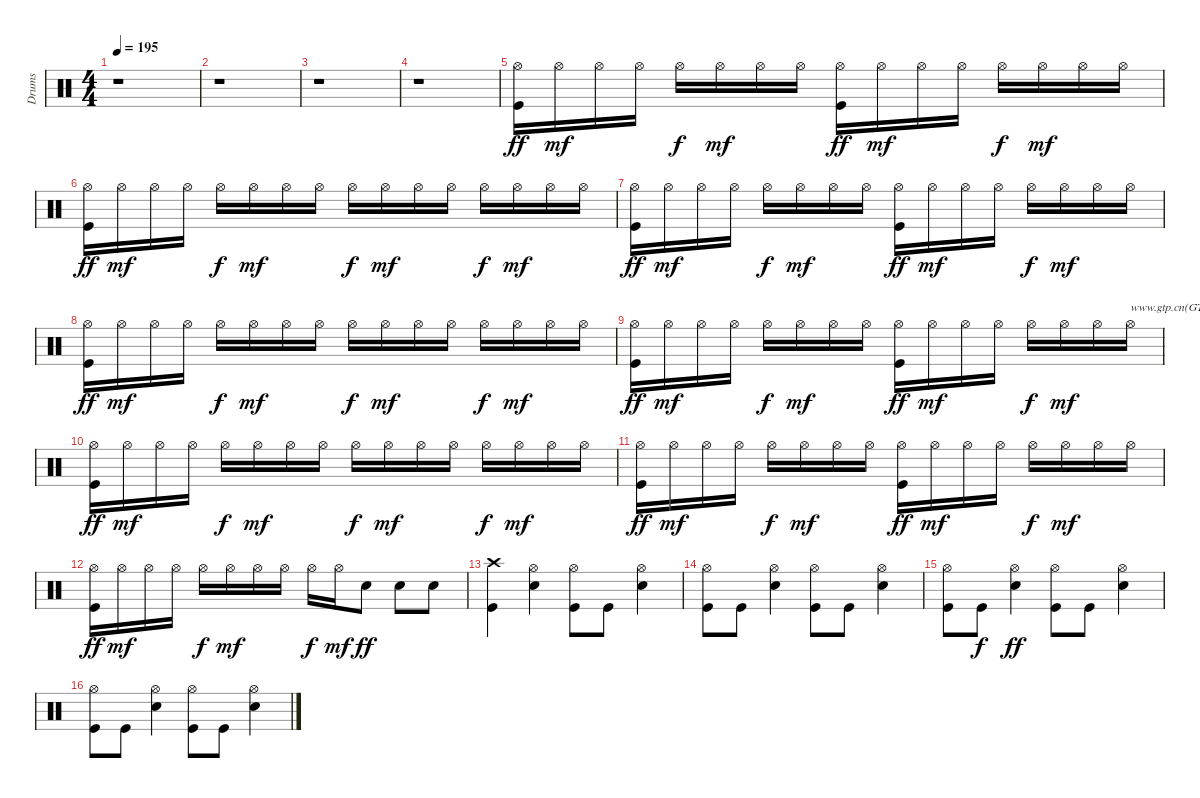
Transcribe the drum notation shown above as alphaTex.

\track ("Drums" "Drums") {instrument percussion}
\staff {score}
\articulation defaults
\ts (4 4)
\tempo 195
\clef neutral
\ks c
r.1{dy ff} |
r.1 |
r.1 |
r.1 |
("Hi-Hat (open)" "Kick (hit)").16 "Hi-Hat (open)".16{dy mf} "Hi-Hat (open)".16 "Hi-Hat (open)".16 "Hi-Hat (open)".16{dy f} "Hi-Hat (open)".16{dy mf} "Hi-Hat (open)".16 "Hi-Hat (open)".16 ("Hi-Hat (open)" "Kick (hit)").16{dy ff} "Hi-Hat (open)".16{dy mf} "Hi-Hat (open)".16 "Hi-Hat (open)".16 "Hi-Hat (open)".16{dy f} "Hi-Hat (open)".16{dy mf} "Hi-Hat (open)".16 "Hi-Hat (open)".16 |
("Hi-Hat (open)" "Kick (hit)").16{dy ff} "Hi-Hat (open)".16{dy mf} "Hi-Hat (open)".16 "Hi-Hat (open)".16 "Hi-Hat (open)".16{dy f} "Hi-Hat (open)".16{dy mf} "Hi-Hat (open)".16 "Hi-Hat (open)".16 "Hi-Hat (open)".16{dy f} "Hi-Hat (open)".16{dy mf} "Hi-Hat (open)".16 "Hi-Hat (open)".16 "Hi-Hat (open)".16{dy f} "Hi-Hat (open)".16{dy mf} "Hi-Hat (open)".16 "Hi-Hat (open)".16 |
("Hi-Hat (open)" "Kick (hit)").16{dy ff} "Hi-Hat (open)".16{dy mf} "Hi-Hat (open)".16 "Hi-Hat (open)".16 "Hi-Hat (open)".16{dy f} "Hi-Hat (open)".16{dy mf} "Hi-Hat (open)".16 "Hi-Hat (open)".16 ("Hi-Hat (open)" "Kick (hit)").16{dy ff} "Hi-Hat (open)".16{dy mf} "Hi-Hat (open)".16 "Hi-Hat (open)".16 "Hi-Hat (open)".16{dy f} "Hi-Hat (open)".16{dy mf} "Hi-Hat (open)".16 "Hi-Hat (open)".16 |
("Hi-Hat (open)" "Kick (hit)").16{dy ff} "Hi-Hat (open)".16{dy mf} "Hi-Hat (open)".16 "Hi-Hat (open)".16 "Hi-Hat (open)".16{dy f} "Hi-Hat (open)".16{dy mf} "Hi-Hat (open)".16 "Hi-Hat (open)".16 "Hi-Hat (open)".16{dy f} "Hi-Hat (open)".16{dy mf} "Hi-Hat (open)".16 "Hi-Hat (open)".16 "Hi-Hat (open)".16{dy f} "Hi-Hat (open)".16{dy mf} "Hi-Hat (open)".16 "Hi-Hat (open)".16 |
("Hi-Hat (open)" "Kick (hit)").16{dy ff} "Hi-Hat (open)".16{dy mf} "Hi-Hat (open)".16 "Hi-Hat (open)".16 "Hi-Hat (open)".16{dy f} "Hi-Hat (open)".16{dy mf} "Hi-Hat (open)".16 "Hi-Hat (open)".16 ("Hi-Hat (open)" "Kick (hit)").16{dy ff} "Hi-Hat (open)".16{dy mf} "Hi-Hat (open)".16 "Hi-Hat (open)".16 "Hi-Hat (open)".16{dy f} "Hi-Hat (open)".16{dy mf} "Hi-Hat (open)".16 "Hi-Hat (open)".16{txt "www.gtp.cn(GTP中文网)您提供优秀的GTP"} |
("Hi-Hat (open)" "Kick (hit)").16{dy ff} "Hi-Hat (open)".16{dy mf} "Hi-Hat (open)".16 "Hi-Hat (open)".16 "Hi-Hat (open)".16{dy f} "Hi-Hat (open)".16{dy mf} "Hi-Hat (open)".16 "Hi-Hat (open)".16 "Hi-Hat (open)".16{dy f} "Hi-Hat (open)".16{dy mf} "Hi-Hat (open)".16 "Hi-Hat (open)".16 "Hi-Hat (open)".16{dy f} "Hi-Hat (open)".16{dy mf} "Hi-Hat (open)".16 "Hi-Hat (open)".16 |
("Hi-Hat (open)" "Kick (hit)").16{dy ff} "Hi-Hat (open)".16{dy mf} "Hi-Hat (open)".16 "Hi-Hat (open)".16 "Hi-Hat (open)".16{dy f} "Hi-Hat (open)".16{dy mf} "Hi-Hat (open)".16 "Hi-Hat (open)".16 ("Hi-Hat (open)" "Kick (hit)").16{dy ff} "Hi-Hat (open)".16{dy mf} "Hi-Hat (open)".16 "Hi-Hat (open)".16 "Hi-Hat (open)".16{dy f} "Hi-Hat (open)".16{dy mf} "Hi-Hat (open)".16 "Hi-Hat (open)".16 |
("Hi-Hat (open)" "Kick (hit)").16{dy ff} "Hi-Hat (open)".16{dy mf} "Hi-Hat (open)".16 "Hi-Hat (open)".16 "Hi-Hat (open)".16{dy f} "Hi-Hat (open)".16{dy mf} "Hi-Hat (open)".16 "Hi-Hat (open)".16 "Hi-Hat (open)".16{dy f} "Hi-Hat (open)".16{dy mf} "Snare (hit) 2".8{dy ff} "Snare (hit) 2".8 "Snare (hit) 2".8 |
("Crash high (hit)" "Kick (hit)").4 ("Hi-Hat (open)" "Snare (hit) 2").4 ("Hi-Hat (open)" "Kick (hit)").8 "Kick (hit)".8 ("Hi-Hat (open)" "Snare (hit) 2").4 |
("Hi-Hat (open)" "Kick (hit)").8 "Kick (hit)".8 ("Hi-Hat (open)" "Snare (hit) 2").4 ("Hi-Hat (open)" "Kick (hit)").8 "Kick (hit)".8 ("Hi-Hat (open)" "Snare (hit) 2").4 |
("Hi-Hat (open)" "Kick (hit)").8 "Kick (hit)".8{dy f} ("Hi-Hat (open)" "Snare (hit) 2").4{dy ff} ("Hi-Hat (open)" "Kick (hit)").8 "Kick (hit)".8 ("Hi-Hat (open)" "Snare (hit) 2").4 |
("Hi-Hat (open)" "Kick (hit)").8 "Kick (hit)".8 ("Hi-Hat (open)" "Snare (hit) 2").4 ("Hi-Hat (open)" "Kick (hit)").8 "Kick (hit)".8 ("Hi-Hat (open)" "Snare (hit) 2").4
